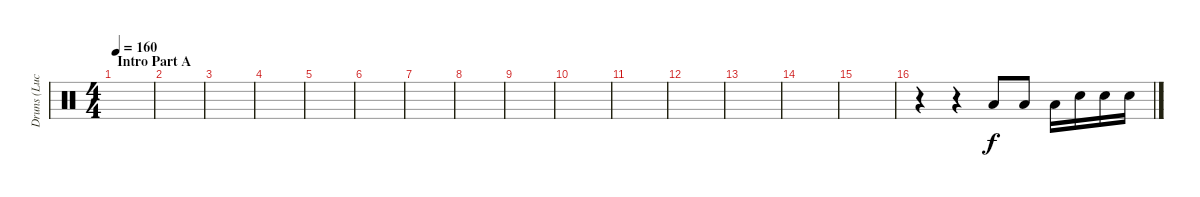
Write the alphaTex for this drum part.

\track ("Druns (Lucas Zigarti)" "Druns (Luc") {instrument percussion}
\staff {score}
\articulation defaults
\ts (4 4)
\section ("" "Intro Part A")
\tempo 160
\clef neutral
\ks c
|
|
|
|
|
|
|
|
|
|
|
|
|
|
|
r.4 r.4 "Low Floor Tom (hit)".8 "Low Floor Tom (hit)".8 "Low Floor Tom (hit)".16 "Snare (hit) 2".16 "Snare (hit) 2".16 "Snare (hit) 2".16
